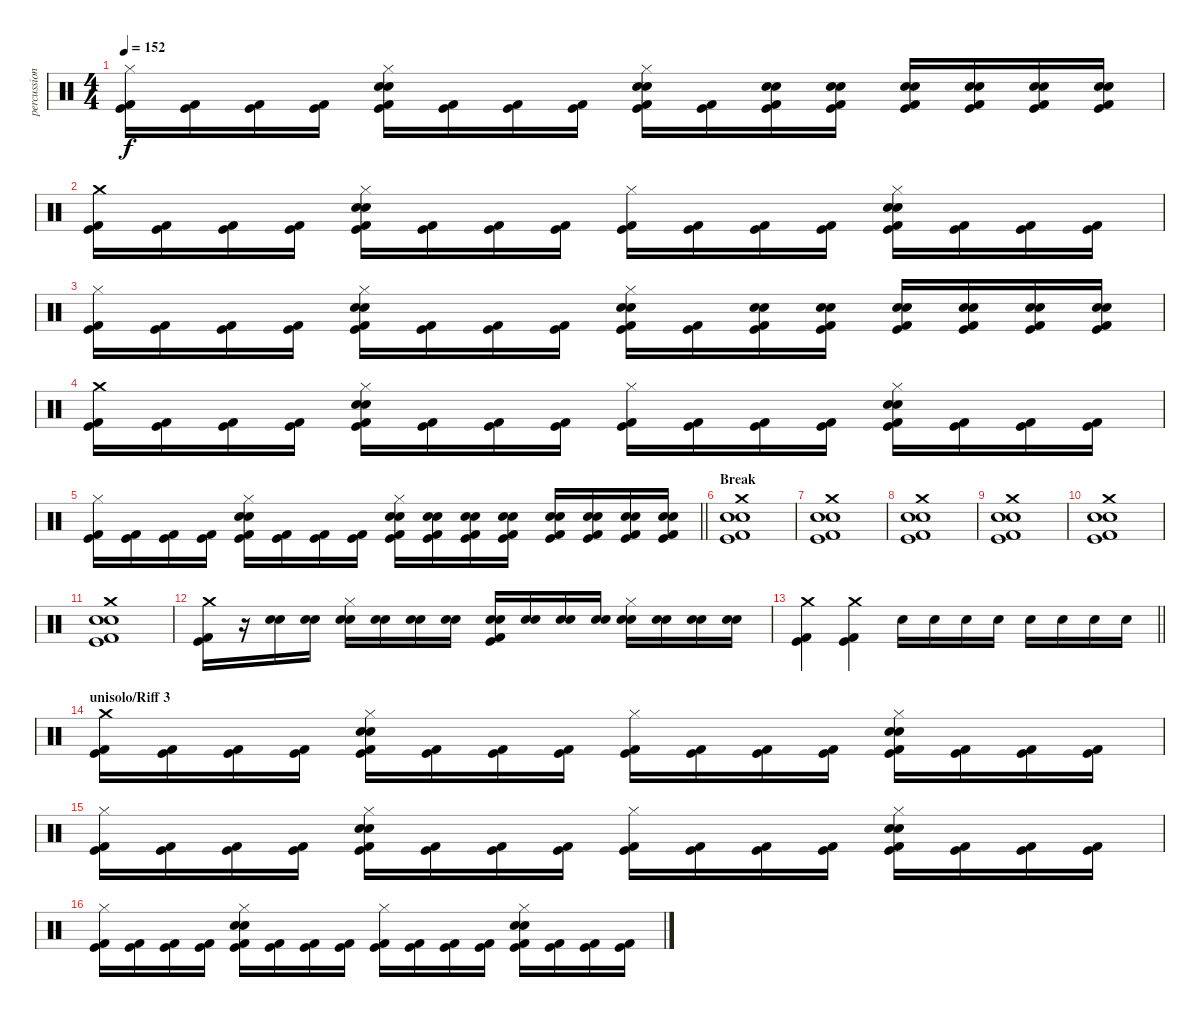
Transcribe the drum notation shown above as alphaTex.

\track ("percussion" "percussion") {instrument percussion}
\staff {score}
\articulation defaults
\ts (4 4)
\tempo 152
\clef neutral
\ks c
("Hi-Hat (closed)" "Kick (hit) 2" "Kick (hit)").16{dy f} ("Kick (hit) 2" "Kick (hit)").16 ("Kick (hit) 2" "Kick (hit)").16 ("Kick (hit) 2" "Kick (hit)").16 ("Hi-Hat (closed)" "Electric Snare (hit)" "Snare (hit) 2" "Kick (hit) 2" "Kick (hit)").16 ("Kick (hit) 2" "Kick (hit)").16 ("Kick (hit) 2" "Kick (hit)").16 ("Kick (hit) 2" "Kick (hit)").16 ("Hi-Hat (closed)" "Electric Snare (hit)" "Snare (hit) 2" "Kick (hit) 2" "Kick (hit)").16 ("Kick (hit) 2" "Kick (hit)").16 ("Electric Snare (hit)" "Snare (hit) 2" "Kick (hit) 2" "Kick (hit)").16 ("Electric Snare (hit)" "Snare (hit) 2" "Kick (hit) 2" "Kick (hit)").16 ("Electric Snare (hit)" "Snare (hit) 2" "Kick (hit) 2" "Kick (hit)").16 ("Electric Snare (hit)" "Snare (hit) 2" "Kick (hit) 2" "Kick (hit)").16 ("Electric Snare (hit)" "Snare (hit) 2" "Kick (hit) 2" "Kick (hit)").16 ("Electric Snare (hit)" "Snare (hit) 2" "Kick (hit) 2" "Kick (hit)").16 |
("Crash medium (hit)" "Kick (hit) 2" "Kick (hit)").16 ("Kick (hit) 2" "Kick (hit)").16 ("Kick (hit) 2" "Kick (hit)").16 ("Kick (hit) 2" "Kick (hit)").16 ("Hi-Hat (closed)" "Electric Snare (hit)" "Snare (hit) 2" "Kick (hit) 2" "Kick (hit)").16 ("Kick (hit) 2" "Kick (hit)").16 ("Kick (hit) 2" "Kick (hit)").16 ("Kick (hit) 2" "Kick (hit)").16 ("Hi-Hat (closed)" "Kick (hit) 2" "Kick (hit)").16 ("Kick (hit) 2" "Kick (hit)").16 ("Kick (hit) 2" "Kick (hit)").16 ("Kick (hit) 2" "Kick (hit)").16 ("Hi-Hat (closed)" "Electric Snare (hit)" "Snare (hit) 2" "Kick (hit) 2" "Kick (hit)").16 ("Kick (hit) 2" "Kick (hit)").16 ("Kick (hit) 2" "Kick (hit)").16 ("Kick (hit) 2" "Kick (hit)").16 |
("Hi-Hat (closed)" "Kick (hit) 2" "Kick (hit)").16 ("Kick (hit) 2" "Kick (hit)").16 ("Kick (hit) 2" "Kick (hit)").16 ("Kick (hit) 2" "Kick (hit)").16 ("Hi-Hat (closed)" "Electric Snare (hit)" "Snare (hit) 2" "Kick (hit) 2" "Kick (hit)").16 ("Kick (hit) 2" "Kick (hit)").16 ("Kick (hit) 2" "Kick (hit)").16 ("Kick (hit) 2" "Kick (hit)").16 ("Hi-Hat (closed)" "Electric Snare (hit)" "Snare (hit) 2" "Kick (hit) 2" "Kick (hit)").16 ("Kick (hit) 2" "Kick (hit)").16 ("Electric Snare (hit)" "Snare (hit) 2" "Kick (hit) 2" "Kick (hit)").16 ("Electric Snare (hit)" "Snare (hit) 2" "Kick (hit) 2" "Kick (hit)").16 ("Electric Snare (hit)" "Snare (hit) 2" "Kick (hit) 2" "Kick (hit)").16 ("Electric Snare (hit)" "Snare (hit) 2" "Kick (hit) 2" "Kick (hit)").16 ("Electric Snare (hit)" "Snare (hit) 2" "Kick (hit) 2" "Kick (hit)").16 ("Electric Snare (hit)" "Snare (hit) 2" "Kick (hit) 2" "Kick (hit)").16 |
("Crash medium (hit)" "Kick (hit) 2" "Kick (hit)").16 ("Kick (hit) 2" "Kick (hit)").16 ("Kick (hit) 2" "Kick (hit)").16 ("Kick (hit) 2" "Kick (hit)").16 ("Hi-Hat (closed)" "Electric Snare (hit)" "Snare (hit) 2" "Kick (hit) 2" "Kick (hit)").16 ("Kick (hit) 2" "Kick (hit)").16 ("Kick (hit) 2" "Kick (hit)").16 ("Kick (hit) 2" "Kick (hit)").16 ("Hi-Hat (closed)" "Kick (hit) 2" "Kick (hit)").16 ("Kick (hit) 2" "Kick (hit)").16 ("Kick (hit) 2" "Kick (hit)").16 ("Kick (hit) 2" "Kick (hit)").16 ("Hi-Hat (closed)" "Electric Snare (hit)" "Snare (hit) 2" "Kick (hit) 2" "Kick (hit)").16 ("Kick (hit) 2" "Kick (hit)").16 ("Kick (hit) 2" "Kick (hit)").16 ("Kick (hit) 2" "Kick (hit)").16 |
\barLineRight lightlight
("Hi-Hat (closed)" "Kick (hit) 2" "Kick (hit)").16 ("Kick (hit) 2" "Kick (hit)").16 ("Kick (hit) 2" "Kick (hit)").16 ("Kick (hit) 2" "Kick (hit)").16 ("Hi-Hat (closed)" "Electric Snare (hit)" "Snare (hit) 2" "Kick (hit) 2" "Kick (hit)").16 ("Kick (hit) 2" "Kick (hit)").16 ("Kick (hit) 2" "Kick (hit)").16 ("Kick (hit) 2" "Kick (hit)").16 ("Hi-Hat (closed)" "Electric Snare (hit)" "Snare (hit) 2" "Kick (hit) 2" "Kick (hit)").16 ("Electric Snare (hit)" "Snare (hit) 2" "Kick (hit) 2" "Kick (hit)").16 ("Electric Snare (hit)" "Snare (hit) 2" "Kick (hit) 2" "Kick (hit)").16 ("Electric Snare (hit)" "Snare (hit) 2" "Kick (hit) 2" "Kick (hit)").16 ("Electric Snare (hit)" "Snare (hit) 2" "Kick (hit) 2" "Kick (hit)").16 ("Electric Snare (hit)" "Snare (hit) 2" "Kick (hit) 2" "Kick (hit)").16 ("Electric Snare (hit)" "Snare (hit) 2" "Kick (hit) 2" "Kick (hit)").16 ("Electric Snare (hit)" "Snare (hit) 2" "Kick (hit) 2" "Kick (hit)").16 |
\section ("" "Break")
("Crash medium (hit)" "Electric Snare (hit)" "Snare (hit) 2" "Kick (hit)" "Kick (hit) 2").1 |
("Crash medium (hit)" "Electric Snare (hit)" "Snare (hit) 2" "Kick (hit)" "Kick (hit) 2").1 |
("Crash medium (hit)" "Electric Snare (hit)" "Snare (hit) 2" "Kick (hit)" "Kick (hit) 2").1 |
("Crash medium (hit)" "Electric Snare (hit)" "Snare (hit) 2" "Kick (hit)" "Kick (hit) 2").1 |
("Crash medium (hit)" "Electric Snare (hit)" "Snare (hit) 2" "Kick (hit)" "Kick (hit) 2").1 |
("Crash medium (hit)" "Electric Snare (hit)" "Snare (hit) 2" "Kick (hit)" "Kick (hit) 2").1 |
("Crash medium (hit)" "Kick (hit) 2" "Kick (hit)").16 r.16 ("Electric Snare (hit)" "Snare (hit) 2").16 ("Electric Snare (hit)" "Snare (hit) 2").16 ("Hi-Hat (closed)" "Electric Snare (hit)" "Snare (hit) 2").16 ("Electric Snare (hit)" "Snare (hit) 2").16 ("Electric Snare (hit)" "Snare (hit) 2").16 ("Electric Snare (hit)" "Snare (hit) 2").16 ("Electric Snare (hit)" "Snare (hit) 2" "Kick (hit) 2" "Kick (hit)").16 ("Electric Snare (hit)" "Snare (hit) 2").16 ("Electric Snare (hit)" "Snare (hit) 2").16 ("Electric Snare (hit)" "Snare (hit) 2").16 ("Hi-Hat (closed)" "Electric Snare (hit)" "Snare (hit) 2").16 ("Electric Snare (hit)" "Snare (hit) 2").16 ("Electric Snare (hit)" "Snare (hit) 2").16 ("Electric Snare (hit)" "Snare (hit) 2").16 |
\barLineRight lightlight
("Crash medium (hit)" "Kick (hit)" "Kick (hit) 2").4 ("Crash medium (hit)" "Kick (hit)" "Kick (hit) 2").4 "Electric Snare (hit)".16 "Electric Snare (hit)".16 "Snare (hit) 2".16 "Snare (hit) 2".16 "Electric Snare (hit)".16 "Electric Snare (hit)".16 "Snare (hit) 2".16 "Snare (hit) 2".16 |
\section ("" "unisolo/Riff 3")
("Crash medium (hit)" "Kick (hit) 2" "Kick (hit)").16 ("Kick (hit) 2" "Kick (hit)").16 ("Kick (hit) 2" "Kick (hit)").16 ("Kick (hit) 2" "Kick (hit)").16 ("Hi-Hat (closed)" "Electric Snare (hit)" "Snare (hit) 2" "Kick (hit) 2" "Kick (hit)").16 ("Kick (hit) 2" "Kick (hit)").16 ("Kick (hit) 2" "Kick (hit)").16 ("Kick (hit) 2" "Kick (hit)").16 ("Hi-Hat (closed)" "Kick (hit) 2" "Kick (hit)").16 ("Kick (hit) 2" "Kick (hit)").16 ("Kick (hit) 2" "Kick (hit)").16 ("Kick (hit) 2" "Kick (hit)").16 ("Hi-Hat (closed)" "Electric Snare (hit)" "Snare (hit) 2" "Kick (hit) 2" "Kick (hit)").16 ("Kick (hit) 2" "Kick (hit)").16 ("Kick (hit) 2" "Kick (hit)").16 ("Kick (hit) 2" "Kick (hit)").16 |
("Hi-Hat (closed)" "Kick (hit) 2" "Kick (hit)").16 ("Kick (hit) 2" "Kick (hit)").16 ("Kick (hit) 2" "Kick (hit)").16 ("Kick (hit) 2" "Kick (hit)").16 ("Hi-Hat (closed)" "Electric Snare (hit)" "Snare (hit) 2" "Kick (hit) 2" "Kick (hit)").16 ("Kick (hit) 2" "Kick (hit)").16 ("Kick (hit) 2" "Kick (hit)").16 ("Kick (hit) 2" "Kick (hit)").16 ("Hi-Hat (closed)" "Kick (hit) 2" "Kick (hit)").16 ("Kick (hit) 2" "Kick (hit)").16 ("Kick (hit) 2" "Kick (hit)").16 ("Kick (hit) 2" "Kick (hit)").16 ("Hi-Hat (closed)" "Electric Snare (hit)" "Snare (hit) 2" "Kick (hit) 2" "Kick (hit)").16 ("Kick (hit) 2" "Kick (hit)").16 ("Kick (hit) 2" "Kick (hit)").16 ("Kick (hit) 2" "Kick (hit)").16 |
("Hi-Hat (closed)" "Kick (hit) 2" "Kick (hit)").16 ("Kick (hit) 2" "Kick (hit)").16 ("Kick (hit) 2" "Kick (hit)").16 ("Kick (hit) 2" "Kick (hit)").16 ("Hi-Hat (closed)" "Electric Snare (hit)" "Snare (hit) 2" "Kick (hit) 2" "Kick (hit)").16 ("Kick (hit) 2" "Kick (hit)").16 ("Kick (hit) 2" "Kick (hit)").16 ("Kick (hit) 2" "Kick (hit)").16 ("Hi-Hat (closed)" "Kick (hit) 2" "Kick (hit)").16 ("Kick (hit) 2" "Kick (hit)").16 ("Kick (hit) 2" "Kick (hit)").16 ("Kick (hit) 2" "Kick (hit)").16 ("Hi-Hat (closed)" "Electric Snare (hit)" "Snare (hit) 2" "Kick (hit) 2" "Kick (hit)").16 ("Kick (hit) 2" "Kick (hit)").16 ("Kick (hit) 2" "Kick (hit)").16 ("Kick (hit) 2" "Kick (hit)").16
